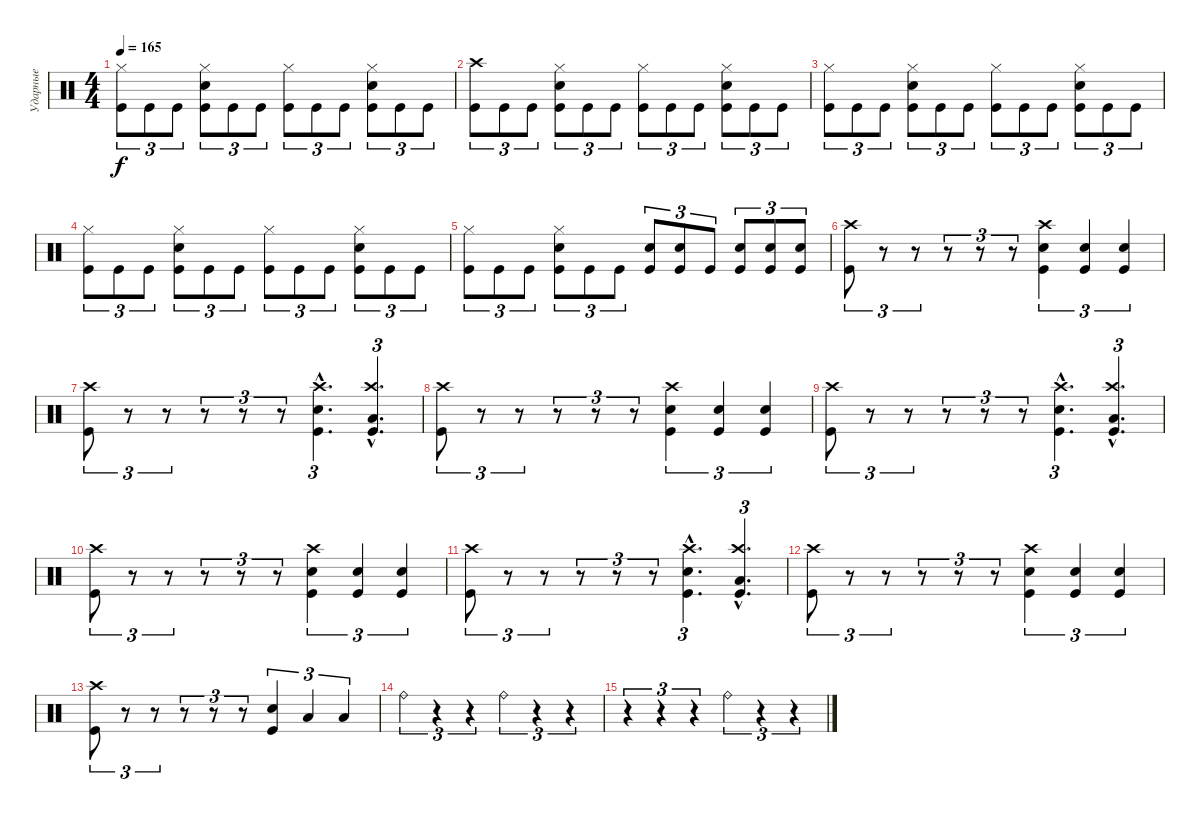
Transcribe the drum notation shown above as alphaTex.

\track ("Ударные" "Ударные") {instrument percussion}
\staff {score}
\articulation defaults
\ts (4 4)
\tempo 165
\clef neutral
\ks c
("Hi-Hat (closed)" "Kick (hit)").8{tu (3 2) dy f} "Kick (hit)".8{tu (3 2)} "Kick (hit)".8{tu (3 2)} ("Hi-Hat (closed)" "Electric Snare (hit)" "Kick (hit)").8{tu (3 2)} "Kick (hit)".8{tu (3 2)} "Kick (hit)".8{tu (3 2)} ("Hi-Hat (closed)" "Kick (hit)").8{tu (3 2)} "Kick (hit)".8{tu (3 2)} "Kick (hit)".8{tu (3 2)} ("Hi-Hat (closed)" "Electric Snare (hit)" "Kick (hit)").8{tu (3 2)} "Kick (hit)".8{tu (3 2)} "Kick (hit)".8{tu (3 2)} |
("Crash high (hit)" "Kick (hit)").8{tu (3 2)} "Kick (hit)".8{tu (3 2)} "Kick (hit)".8{tu (3 2)} ("Hi-Hat (closed)" "Electric Snare (hit)" "Kick (hit)").8{tu (3 2)} "Kick (hit)".8{tu (3 2)} "Kick (hit)".8{tu (3 2)} ("Hi-Hat (closed)" "Kick (hit)").8{tu (3 2)} "Kick (hit)".8{tu (3 2)} "Kick (hit)".8{tu (3 2)} ("Hi-Hat (closed)" "Electric Snare (hit)" "Kick (hit)").8{tu (3 2)} "Kick (hit)".8{tu (3 2)} "Kick (hit)".8{tu (3 2)} |
("Hi-Hat (closed)" "Kick (hit)").8{tu (3 2)} "Kick (hit)".8{tu (3 2)} "Kick (hit)".8{tu (3 2)} ("Hi-Hat (closed)" "Electric Snare (hit)" "Kick (hit)").8{tu (3 2)} "Kick (hit)".8{tu (3 2)} "Kick (hit)".8{tu (3 2)} ("Hi-Hat (closed)" "Kick (hit)").8{tu (3 2)} "Kick (hit)".8{tu (3 2)} "Kick (hit)".8{tu (3 2)} ("Hi-Hat (closed)" "Electric Snare (hit)" "Kick (hit)").8{tu (3 2)} "Kick (hit)".8{tu (3 2)} "Kick (hit)".8{tu (3 2)} |
("Hi-Hat (closed)" "Kick (hit)").8{tu (3 2)} "Kick (hit)".8{tu (3 2)} "Kick (hit)".8{tu (3 2)} ("Hi-Hat (closed)" "Electric Snare (hit)" "Kick (hit)").8{tu (3 2)} "Kick (hit)".8{tu (3 2)} "Kick (hit)".8{tu (3 2)} ("Hi-Hat (closed)" "Kick (hit)").8{tu (3 2)} "Kick (hit)".8{tu (3 2)} "Kick (hit)".8{tu (3 2)} ("Hi-Hat (closed)" "Electric Snare (hit)" "Kick (hit)").8{tu (3 2)} "Kick (hit)".8{tu (3 2)} "Kick (hit)".8{tu (3 2)} |
("Hi-Hat (closed)" "Kick (hit)").8{tu (3 2)} "Kick (hit)".8{tu (3 2)} "Kick (hit)".8{tu (3 2)} ("Hi-Hat (closed)" "Electric Snare (hit)" "Kick (hit)").8{tu (3 2)} "Kick (hit)".8{tu (3 2)} "Kick (hit)".8{tu (3 2)} ("Electric Snare (hit)" "Kick (hit)").8{tu (3 2)} ("Electric Snare (hit)" "Kick (hit)").8{tu (3 2)} "Kick (hit)".8{tu (3 2)} ("Electric Snare (hit)" "Kick (hit)").8{tu (3 2)} ("Electric Snare (hit)" "Kick (hit)").8{tu (3 2)} ("Electric Snare (hit)" "Kick (hit)").8{tu (3 2)} |
("Crash high (hit)" "Kick (hit)").8{tu (3 2)} r.8{tu (3 2)} r.8{tu (3 2)} r.8{tu (3 2)} r.8{tu (3 2)} r.8{tu (3 2)} ("Crash high (hit)" "Electric Snare (hit)" "Kick (hit)").4{tu (3 2)} ("Electric Snare (hit)" "Kick (hit)").4{tu (3 2)} ("Electric Snare (hit)" "Kick (hit)").4{tu (3 2)} |
("Crash high (hit)" "Kick (hit)").8{tu (3 2)} r.8{tu (3 2)} r.8{tu (3 2)} r.8{tu (3 2)} r.8{tu (3 2)} r.8{tu (3 2)} ("Crash high (hit)"{hac} "Electric Snare (hit)"{hac} "Kick (hit)"{hac}).4{d tu (3 2)} ("Crash high (hit)"{hac} "Low Tom (hit)"{hac} "Kick (hit)"{hac}).4{d tu (3 2)} |
("Crash high (hit)" "Kick (hit)").8{tu (3 2)} r.8{tu (3 2)} r.8{tu (3 2)} r.8{tu (3 2)} r.8{tu (3 2)} r.8{tu (3 2)} ("Crash high (hit)" "Electric Snare (hit)" "Kick (hit)").4{tu (3 2)} ("Electric Snare (hit)" "Kick (hit)").4{tu (3 2)} ("Electric Snare (hit)" "Kick (hit)").4{tu (3 2)} |
("Crash high (hit)" "Kick (hit)").8{tu (3 2)} r.8{tu (3 2)} r.8{tu (3 2)} r.8{tu (3 2)} r.8{tu (3 2)} r.8{tu (3 2)} ("Crash high (hit)"{hac} "Electric Snare (hit)"{hac} "Kick (hit)"{hac}).4{d tu (3 2)} ("Crash high (hit)"{hac} "Low Tom (hit)"{hac} "Kick (hit)"{hac}).4{d tu (3 2)} |
("Crash high (hit)" "Kick (hit)").8{tu (3 2)} r.8{tu (3 2)} r.8{tu (3 2)} r.8{tu (3 2)} r.8{tu (3 2)} r.8{tu (3 2)} ("Crash high (hit)" "Electric Snare (hit)" "Kick (hit)").4{tu (3 2)} ("Electric Snare (hit)" "Kick (hit)").4{tu (3 2)} ("Electric Snare (hit)" "Kick (hit)").4{tu (3 2)} |
("Crash high (hit)" "Kick (hit)").8{tu (3 2)} r.8{tu (3 2)} r.8{tu (3 2)} r.8{tu (3 2)} r.8{tu (3 2)} r.8{tu (3 2)} ("Crash high (hit)"{hac} "Electric Snare (hit)"{hac} "Kick (hit)"{hac}).4{d tu (3 2)} ("Crash high (hit)"{hac} "Low Tom (hit)"{hac} "Kick (hit)"{hac}).4{d tu (3 2)} |
("Crash high (hit)" "Kick (hit)").8{tu (3 2)} r.8{tu (3 2)} r.8{tu (3 2)} r.8{tu (3 2)} r.8{tu (3 2)} r.8{tu (3 2)} ("Crash high (hit)" "Electric Snare (hit)" "Kick (hit)").4{tu (3 2)} ("Electric Snare (hit)" "Kick (hit)").4{tu (3 2)} ("Electric Snare (hit)" "Kick (hit)").4{tu (3 2)} |
("Crash high (hit)" "Kick (hit)").8{tu (3 2)} r.8{tu (3 2)} r.8{tu (3 2)} r.8{tu (3 2)} r.8{tu (3 2)} r.8{tu (3 2)} ("Electric Snare (hit)" "Kick (hit)").4{tu (3 2)} "Low Tom (hit)".4{tu (3 2)} "Low Tom (hit)".4{tu (3 2)} |
"Ride (bell)".4{tu (3 2)} r.4{tu (3 2)} r.4{tu (3 2)} "Ride (bell)".4{tu (3 2)} r.4{tu (3 2)} r.4{tu (3 2)} |
r.4{tu (3 2)} r.4{tu (3 2)} r.4{tu (3 2)} "Ride (bell)".4{tu (3 2)} r.4{tu (3 2)} r.4{tu (3 2)}
